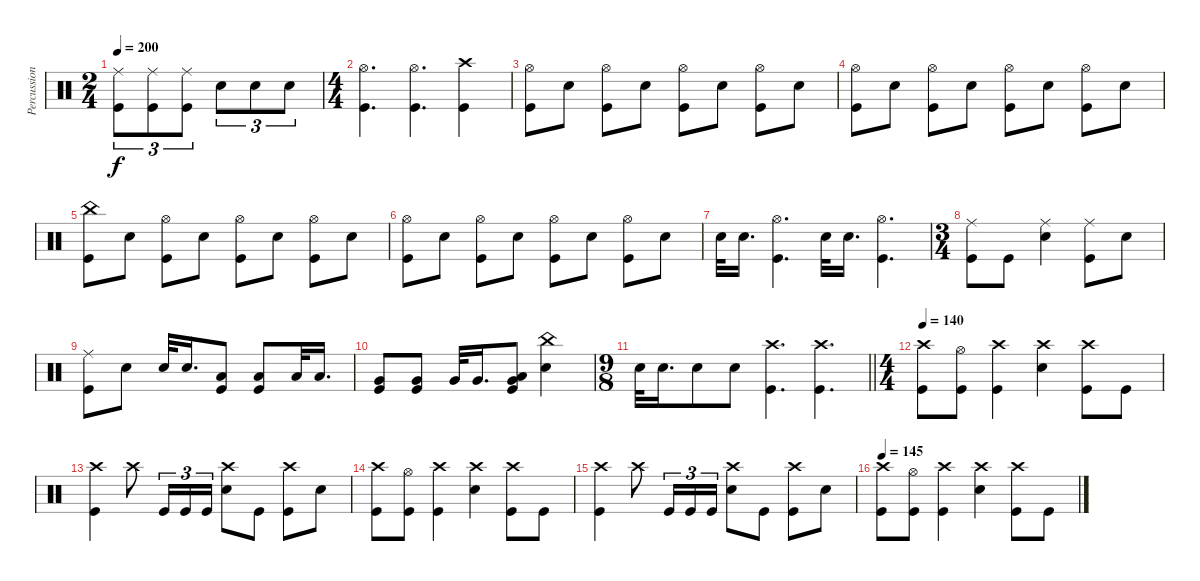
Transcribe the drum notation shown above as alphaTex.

\track ("Percussion" "Percussion") {instrument percussion}
\staff {score}
\articulation defaults
\ts (2 4)
\tempo 200
\clef neutral
\ks c
("Ride (middle)" "Kick (hit)").8{tu (3 2) dy f} ("Ride (middle)" "Kick (hit)").8{tu (3 2)} ("Ride (middle)" "Kick (hit)").8{tu (3 2)} "Electric Snare (hit)".8{tu (3 2)} "Electric Snare (hit)".8{tu (3 2)} "Electric Snare (hit)".8{tu (3 2)} |
\ts (4 4)
("Hi-Hat (open)" "Kick (hit)").4{d} ("Hi-Hat (open)" "Kick (hit)").4{d} ("Crash high (hit)" "Kick (hit)").4 |
("Hi-Hat (open)" "Kick (hit)").8 "Electric Snare (hit)".8 ("Hi-Hat (open)" "Kick (hit)").8 "Electric Snare (hit)".8 ("Hi-Hat (open)" "Kick (hit)").8 "Electric Snare (hit)".8 ("Hi-Hat (open)" "Kick (hit)").8 "Electric Snare (hit)".8 |
("Hi-Hat (open)" "Kick (hit)").8 "Electric Snare (hit)".8 ("Hi-Hat (open)" "Kick (hit)").8 "Electric Snare (hit)".8 ("Hi-Hat (open)" "Kick (hit)").8 "Electric Snare (hit)".8 ("Hi-Hat (open)" "Kick (hit)").8 "Electric Snare (hit)".8 |
("China (hit)" "Kick (hit)").8 "Electric Snare (hit)".8 ("Hi-Hat (open)" "Kick (hit)").8 "Electric Snare (hit)".8 ("Hi-Hat (open)" "Kick (hit)").8 "Electric Snare (hit)".8 ("Hi-Hat (open)" "Kick (hit)").8 "Electric Snare (hit)".8 |
("Hi-Hat (open)" "Kick (hit)").8 "Electric Snare (hit)".8 ("Hi-Hat (open)" "Kick (hit)").8 "Electric Snare (hit)".8 ("Hi-Hat (open)" "Kick (hit)").8 "Electric Snare (hit)".8 ("Hi-Hat (open)" "Kick (hit)").8 "Electric Snare (hit)".8 |
"Electric Snare (hit)".32 "Electric Snare (hit)".16{d} ("Hi-Hat (open)" "Kick (hit)").4{d} "Electric Snare (hit)".32 "Electric Snare (hit)".16{d} ("Hi-Hat (open)" "Kick (hit)").4{d} |
\ts (3 4)
("Ride (middle)" "Kick (hit)").8 "Kick (hit)".8 ("Ride (middle)" "Electric Snare (hit)").4 ("Ride (middle)" "Kick (hit)").8 "Electric Snare (hit)".8 |
("Ride (middle)" "Kick (hit)").8 "Electric Snare (hit)".8 "Electric Snare (hit)".32 "Electric Snare (hit)".16{d} ("Low Tom (hit)" "Kick (hit)").8 ("Low Tom (hit)" "Kick (hit)").8 "Low Tom (hit)".32 "Low Tom (hit)".16{d} |
("Very Low Tom (hit)" "Kick (hit)").8 ("Very Low Tom (hit)" "Kick (hit)").8 "Very Low Tom (hit)".32 "Very Low Tom (hit)".16{d} ("Very Low Tom (hit)" "Low Floor Tom (hit)" "Kick (hit)").8 ("China (hit)" "Electric Snare (hit)").4 |
\ts (9 8)
\barLineRight lightlight "Electric Snare (hit)".32 "Electric Snare (hit)".16{d} "Electric Snare (hit)".8 "Electric Snare (hit)".8
("Crash high (hit)" "Kick (hit)").4{d} ("Crash high (hit)" "Kick (hit)").4{d} |
\ts (4 4)
\tempo 140
("Crash high (hit)" "Kick (hit)").8 ("Hi-Hat (open)" "Kick (hit)").8 ("Crash high (hit)" "Kick (hit)").4 ("Crash high (hit)" "Electric Snare (hit)").4 ("Crash high (hit)" "Kick (hit)").8 "Kick (hit)".8 |
("Crash high (hit)" "Kick (hit)").4 "Crash high (hit)".8 "Kick (hit)".16{tu (3 2)} "Kick (hit)".16{tu (3 2)} "Kick (hit)".16{tu (3 2)} ("Crash high (hit)" "Electric Snare (hit)").8 "Kick (hit)".8 ("Crash high (hit)" "Kick (hit)").8 "Electric Snare (hit)".8 |
("Crash high (hit)" "Kick (hit)").8 ("Hi-Hat (open)" "Kick (hit)").8 ("Crash high (hit)" "Kick (hit)").4 ("Crash high (hit)" "Electric Snare (hit)").4 ("Crash high (hit)" "Kick (hit)").8 "Kick (hit)".8 |
("Crash high (hit)" "Kick (hit)").4 "Crash high (hit)".8 "Kick (hit)".16{tu (3 2)} "Kick (hit)".16{tu (3 2)} "Kick (hit)".16{tu (3 2)} ("Crash high (hit)" "Electric Snare (hit)").8 "Kick (hit)".8 ("Crash high (hit)" "Kick (hit)").8 "Electric Snare (hit)".8 |
\tempo 145
("Crash high (hit)" "Kick (hit)").8 ("Hi-Hat (open)" "Kick (hit)").8 ("Crash high (hit)" "Kick (hit)").4 ("Crash high (hit)" "Electric Snare (hit)").4 ("Crash high (hit)" "Kick (hit)").8 "Kick (hit)".8
